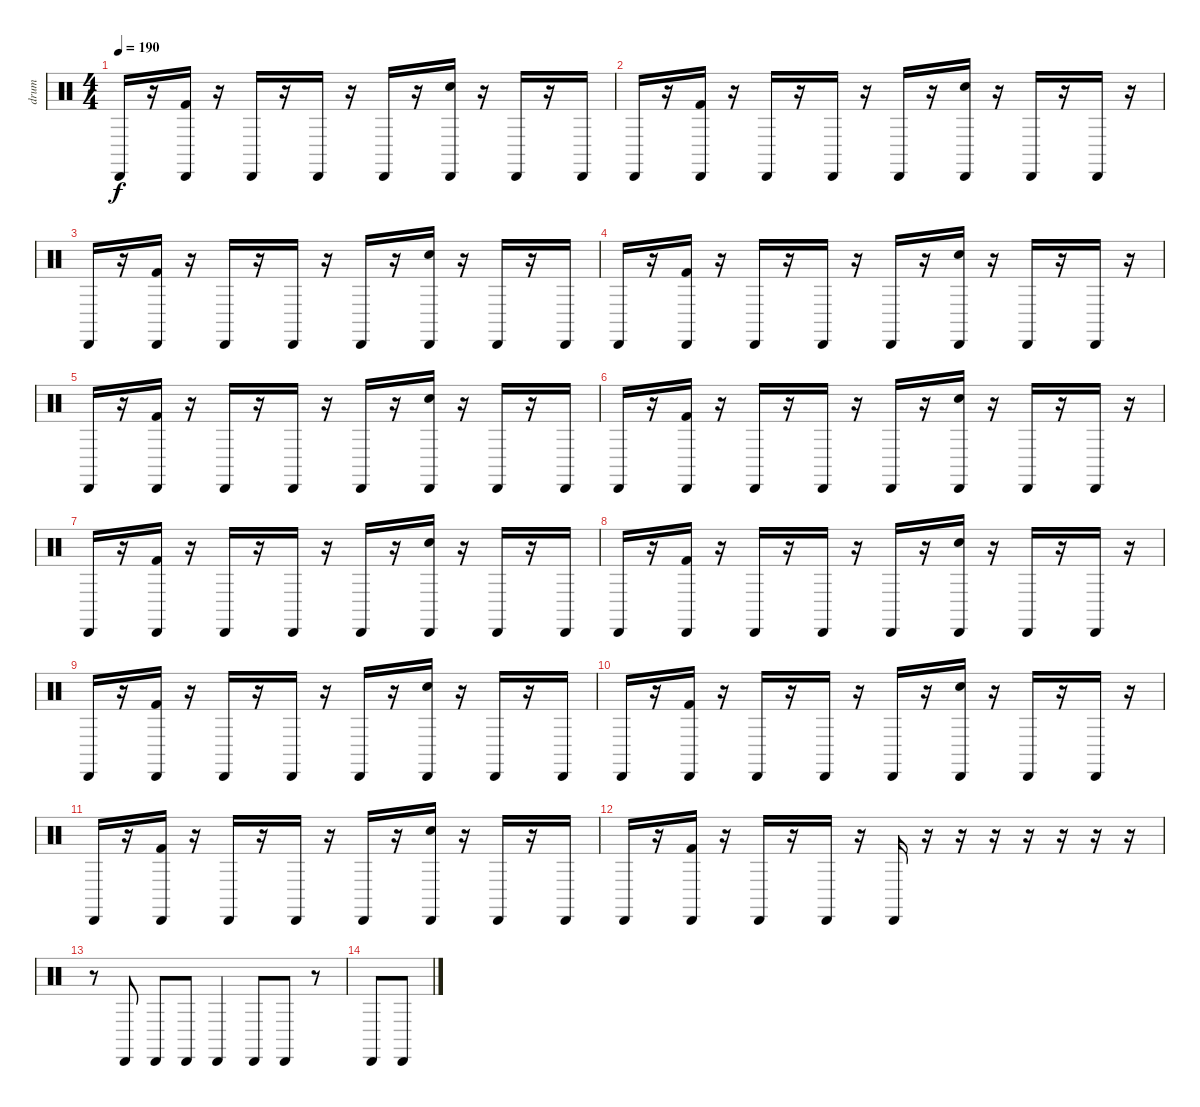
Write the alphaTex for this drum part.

\track ("drum" "drum") {instrument percussion}
\staff {score}
\articulation defaults
\ts (4 4)
\tempo 190
\clef neutral
\ks c "Cabasa (hit)".16{dy f}
r.16 ("Cabasa (hit)" "Kick (hit) 2").16 r.16 "Cabasa (hit)".16 r.16 "Cabasa (hit)".16 r.16 "Cabasa (hit)".16 r.16 ("Cabasa (hit)" "Snare (hit) 2").16 r.16 "Cabasa (hit)".16 r.16 "Cabasa (hit)".16 |
"Cabasa (hit)".16 r.16 ("Cabasa (hit)" "Kick (hit) 2").16 r.16 "Cabasa (hit)".16 r.16 "Cabasa (hit)".16 r.16 "Cabasa (hit)".16 r.16 ("Cabasa (hit)" "Snare (hit) 2").16 r.16 "Cabasa (hit)".16 r.16 "Cabasa (hit)".16 r.16 |
"Cabasa (hit)".16 r.16 ("Cabasa (hit)" "Kick (hit) 2").16 r.16 "Cabasa (hit)".16 r.16 "Cabasa (hit)".16 r.16 "Cabasa (hit)".16 r.16 ("Cabasa (hit)" "Snare (hit) 2").16 r.16 "Cabasa (hit)".16 r.16 "Cabasa (hit)".16 |
"Cabasa (hit)".16 r.16 ("Cabasa (hit)" "Kick (hit) 2").16 r.16 "Cabasa (hit)".16 r.16 "Cabasa (hit)".16 r.16 "Cabasa (hit)".16 r.16 ("Cabasa (hit)" "Snare (hit) 2").16 r.16 "Cabasa (hit)".16 r.16 "Cabasa (hit)".16 r.16 |
"Cabasa (hit)".16 r.16 ("Cabasa (hit)" "Kick (hit) 2").16 r.16 "Cabasa (hit)".16 r.16 "Cabasa (hit)".16 r.16 "Cabasa (hit)".16 r.16 ("Cabasa (hit)" "Snare (hit) 2").16 r.16 "Cabasa (hit)".16 r.16 "Cabasa (hit)".16 |
"Cabasa (hit)".16 r.16 ("Cabasa (hit)" "Kick (hit) 2").16 r.16 "Cabasa (hit)".16 r.16 "Cabasa (hit)".16 r.16 "Cabasa (hit)".16 r.16 ("Cabasa (hit)" "Snare (hit) 2").16 r.16 "Cabasa (hit)".16 r.16 "Cabasa (hit)".16 r.16 |
"Cabasa (hit)".16 r.16 ("Cabasa (hit)" "Kick (hit) 2").16 r.16 "Cabasa (hit)".16 r.16 "Cabasa (hit)".16 r.16 "Cabasa (hit)".16 r.16 ("Cabasa (hit)" "Snare (hit) 2").16 r.16 "Cabasa (hit)".16 r.16 "Cabasa (hit)".16 |
"Cabasa (hit)".16 r.16 ("Cabasa (hit)" "Kick (hit) 2").16 r.16 "Cabasa (hit)".16 r.16 "Cabasa (hit)".16 r.16 "Cabasa (hit)".16 r.16 ("Cabasa (hit)" "Snare (hit) 2").16 r.16 "Cabasa (hit)".16 r.16 "Cabasa (hit)".16 r.16 |
"Cabasa (hit)".16 r.16 ("Cabasa (hit)" "Kick (hit) 2").16 r.16 "Cabasa (hit)".16 r.16 "Cabasa (hit)".16 r.16 "Cabasa (hit)".16 r.16 ("Cabasa (hit)" "Snare (hit) 2").16 r.16 "Cabasa (hit)".16 r.16 "Cabasa (hit)".16 |
"Cabasa (hit)".16 r.16 ("Cabasa (hit)" "Kick (hit) 2").16 r.16 "Cabasa (hit)".16 r.16 "Cabasa (hit)".16 r.16 "Cabasa (hit)".16 r.16 ("Cabasa (hit)" "Snare (hit) 2").16 r.16 "Cabasa (hit)".16 r.16 "Cabasa (hit)".16 r.16 |
"Cabasa (hit)".16 r.16 ("Cabasa (hit)" "Kick (hit) 2").16 r.16 "Cabasa (hit)".16 r.16 "Cabasa (hit)".16 r.16 "Cabasa (hit)".16 r.16 ("Cabasa (hit)" "Snare (hit) 2").16 r.16 "Cabasa (hit)".16 r.16 "Cabasa (hit)".16 |
"Cabasa (hit)".16 r.16 ("Cabasa (hit)" "Kick (hit) 2").16 r.16 "Cabasa (hit)".16 r.16 "Cabasa (hit)".16 r.16 "Cabasa (hit)".16 r.16 r.16 r.16 r.16 r.16 r.16 r.16 |
r.8 "Cabasa (hit)".8 "Cabasa (hit)".8 "Cabasa (hit)".8 "Cabasa (hit)".4 "Cabasa (hit)".8 "Cabasa (hit)".8 r.8 |
"Cabasa (hit)".8 "Cabasa (hit)".8
